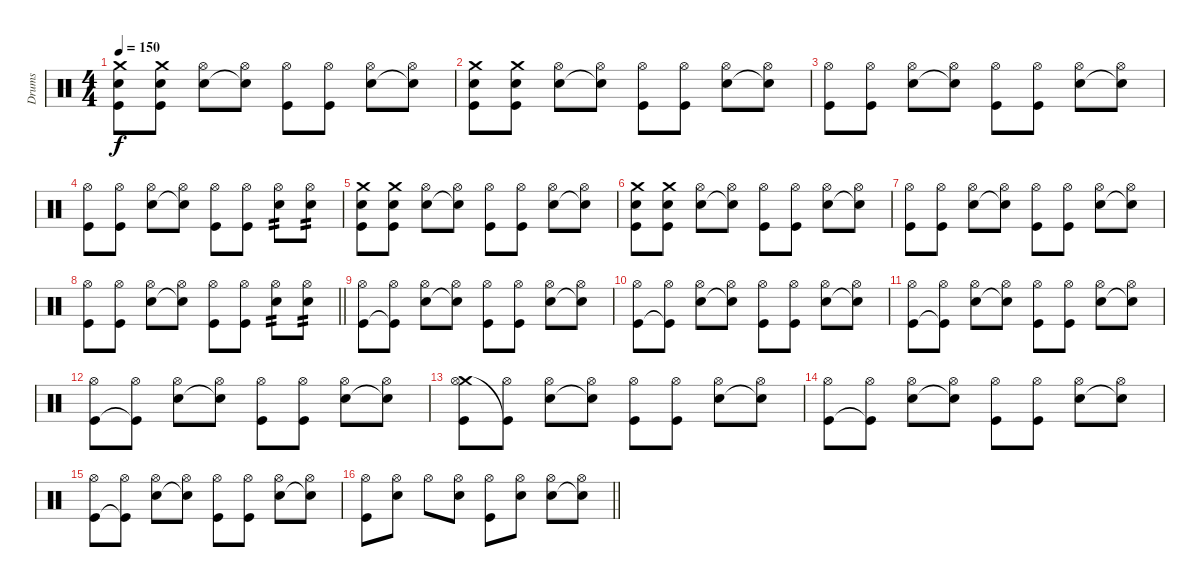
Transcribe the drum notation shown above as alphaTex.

\track ("Drums" "Drums") {instrument percussion}
\staff {score}
\articulation defaults
\ts (4 4)
\tempo 150
\clef neutral
\ks c
("Crash medium (hit)" "Electric Snare (hit)" "Kick (hit)").8{dy f} ("Crash medium (hit)" "Electric Snare (hit)" "Kick (hit)").8 ("Hi-Hat (open)" "Electric Snare (hit)").8 ("Hi-Hat (open)" "Snare (hit)"{t}).8 ("Hi-Hat (open)" "Kick (hit)").8 ("Hi-Hat (open)" "Kick (hit)").8 ("Hi-Hat (open)" "Electric Snare (hit)").8 ("Hi-Hat (open)" "Snare (hit)"{t}).8 |
("Crash medium (hit)" "Electric Snare (hit)" "Kick (hit)").8 ("Crash medium (hit)" "Electric Snare (hit)" "Kick (hit)").8 ("Hi-Hat (open)" "Electric Snare (hit)").8 ("Hi-Hat (open)" "Snare (hit)"{t}).8 ("Hi-Hat (open)" "Kick (hit)").8 ("Hi-Hat (open)" "Kick (hit)").8 ("Hi-Hat (open)" "Electric Snare (hit)").8 ("Hi-Hat (open)" "Snare (hit)"{t}).8 |
("Hi-Hat (open)" "Kick (hit)").8 ("Hi-Hat (open)" "Kick (hit)").8 ("Hi-Hat (open)" "Electric Snare (hit)").8 ("Hi-Hat (open)" "Snare (hit)"{t}).8 ("Hi-Hat (open)" "Kick (hit)").8 ("Hi-Hat (open)" "Kick (hit)").8 ("Hi-Hat (open)" "Electric Snare (hit)").8 ("Hi-Hat (open)" "Snare (hit)"{t}).8 |
("Hi-Hat (open)" "Kick (hit)").8 ("Hi-Hat (open)" "Kick (hit)").8 ("Hi-Hat (open)" "Electric Snare (hit)").8 ("Hi-Hat (open)" "Snare (hit)"{t}).8 ("Hi-Hat (open)" "Kick (hit)").8 ("Hi-Hat (open)" "Kick (hit)").8 ("Hi-Hat (open)" "Electric Snare (hit)").8{tp 2} ("Hi-Hat (open)" "Electric Snare (hit)").8{tp 2} |
("Crash medium (hit)" "Electric Snare (hit)" "Kick (hit)").8 ("Crash medium (hit)" "Electric Snare (hit)" "Kick (hit)").8 ("Hi-Hat (open)" "Electric Snare (hit)").8 ("Hi-Hat (open)" "Snare (hit)"{t}).8 ("Hi-Hat (open)" "Kick (hit)").8 ("Hi-Hat (open)" "Kick (hit)").8 ("Hi-Hat (open)" "Electric Snare (hit)").8 ("Hi-Hat (open)" "Snare (hit)"{t}).8 |
("Crash medium (hit)" "Electric Snare (hit)" "Kick (hit)").8 ("Crash medium (hit)" "Electric Snare (hit)" "Kick (hit)").8 ("Hi-Hat (open)" "Electric Snare (hit)").8 ("Hi-Hat (open)" "Snare (hit)"{t}).8 ("Hi-Hat (open)" "Kick (hit)").8 ("Hi-Hat (open)" "Kick (hit)").8 ("Hi-Hat (open)" "Electric Snare (hit)").8 ("Hi-Hat (open)" "Snare (hit)"{t}).8 |
("Hi-Hat (open)" "Kick (hit)").8 ("Hi-Hat (open)" "Kick (hit)").8 ("Hi-Hat (open)" "Electric Snare (hit)").8 ("Hi-Hat (open)" "Snare (hit)"{t}).8 ("Hi-Hat (open)" "Kick (hit)").8 ("Hi-Hat (open)" "Kick (hit)").8 ("Hi-Hat (open)" "Electric Snare (hit)").8 ("Hi-Hat (open)" "Snare (hit)"{t}).8 |
\barLineRight lightlight
("Hi-Hat (open)" "Kick (hit)").8 ("Hi-Hat (open)" "Kick (hit)").8 ("Hi-Hat (open)" "Electric Snare (hit)").8 ("Hi-Hat (open)" "Snare (hit)"{t}).8 ("Hi-Hat (open)" "Kick (hit)").8 ("Hi-Hat (open)" "Kick (hit)").8 ("Hi-Hat (open)" "Electric Snare (hit)").8{tp 2} ("Hi-Hat (open)" "Electric Snare (hit)").8{tp 2} |
("Hi-Hat (open)" "Kick (hit)").8 ("Hi-Hat (open)" "Kick (hit)"{t}).8 ("Hi-Hat (open)" "Electric Snare (hit)").8 ("Hi-Hat (open)" "Snare (hit)"{t}).8 ("Hi-Hat (open)" "Kick (hit)").8 ("Hi-Hat (open)" "Kick (hit)").8 ("Hi-Hat (open)" "Electric Snare (hit)").8 ("Hi-Hat (open)" "Snare (hit)"{t}).8 |
("Hi-Hat (open)" "Kick (hit)").8 ("Hi-Hat (open)" "Kick (hit)"{t}).8 ("Hi-Hat (open)" "Electric Snare (hit)").8 ("Hi-Hat (open)" "Snare (hit)"{t}).8 ("Hi-Hat (open)" "Kick (hit)").8 ("Hi-Hat (open)" "Kick (hit)").8 ("Hi-Hat (open)" "Electric Snare (hit)").8 ("Hi-Hat (open)" "Snare (hit)"{t}).8 |
("Hi-Hat (open)" "Kick (hit)").8 ("Hi-Hat (open)" "Kick (hit)"{t}).8 ("Hi-Hat (open)" "Electric Snare (hit)").8 ("Hi-Hat (open)" "Snare (hit)"{t}).8 ("Hi-Hat (open)" "Kick (hit)").8 ("Hi-Hat (open)" "Kick (hit)").8 ("Hi-Hat (open)" "Electric Snare (hit)").8 ("Hi-Hat (open)" "Snare (hit)"{t}).8 |
("Hi-Hat (open)" "Kick (hit)").8 ("Hi-Hat (open)" "Kick (hit)"{t}).8 ("Hi-Hat (open)" "Electric Snare (hit)").8 ("Hi-Hat (open)" "Snare (hit)"{t}).8 ("Hi-Hat (open)" "Kick (hit)").8 ("Hi-Hat (open)" "Kick (hit)").8 ("Hi-Hat (open)" "Electric Snare (hit)").8 ("Hi-Hat (open)" "Snare (hit)"{t}).8 |
("Crash medium (hit)" "Hi-Hat (open)" "Kick (hit)").8 ("Hi-Hat (open)" "Kick (hit)"{t}).8 ("Hi-Hat (open)" "Electric Snare (hit)").8 ("Hi-Hat (open)" "Snare (hit)"{t}).8 ("Hi-Hat (open)" "Kick (hit)").8 ("Hi-Hat (open)" "Kick (hit)").8 ("Hi-Hat (open)" "Electric Snare (hit)").8 ("Hi-Hat (open)" "Snare (hit)"{t}).8 |
("Hi-Hat (open)" "Kick (hit)").8 ("Hi-Hat (open)" "Kick (hit)"{t}).8 ("Hi-Hat (open)" "Electric Snare (hit)").8 ("Hi-Hat (open)" "Snare (hit)"{t}).8 ("Hi-Hat (open)" "Kick (hit)").8 ("Hi-Hat (open)" "Kick (hit)").8 ("Hi-Hat (open)" "Electric Snare (hit)").8 ("Hi-Hat (open)" "Snare (hit)"{t}).8 |
("Hi-Hat (open)" "Kick (hit)").8 ("Hi-Hat (open)" "Kick (hit)"{t}).8 ("Hi-Hat (open)" "Electric Snare (hit)").8 ("Hi-Hat (open)" "Snare (hit)"{t}).8 ("Hi-Hat (open)" "Kick (hit)").8 ("Hi-Hat (open)" "Kick (hit)").8 ("Hi-Hat (open)" "Electric Snare (hit)").8 ("Hi-Hat (open)" "Snare (hit)"{t}).8 |
\barLineRight lightlight
("Hi-Hat (open)" "Kick (hit)").8 ("Hi-Hat (open)" "Electric Snare (hit)").8 "Hi-Hat (open)".8 ("Hi-Hat (open)" "Electric Snare (hit)").8 ("Hi-Hat (open)" "Kick (hit)").8 ("Hi-Hat (open)" "Electric Snare (hit)").8 ("Hi-Hat (open)" "Electric Snare (hit)").8 ("Hi-Hat (open)" "Snare (hit)"{t}).8
